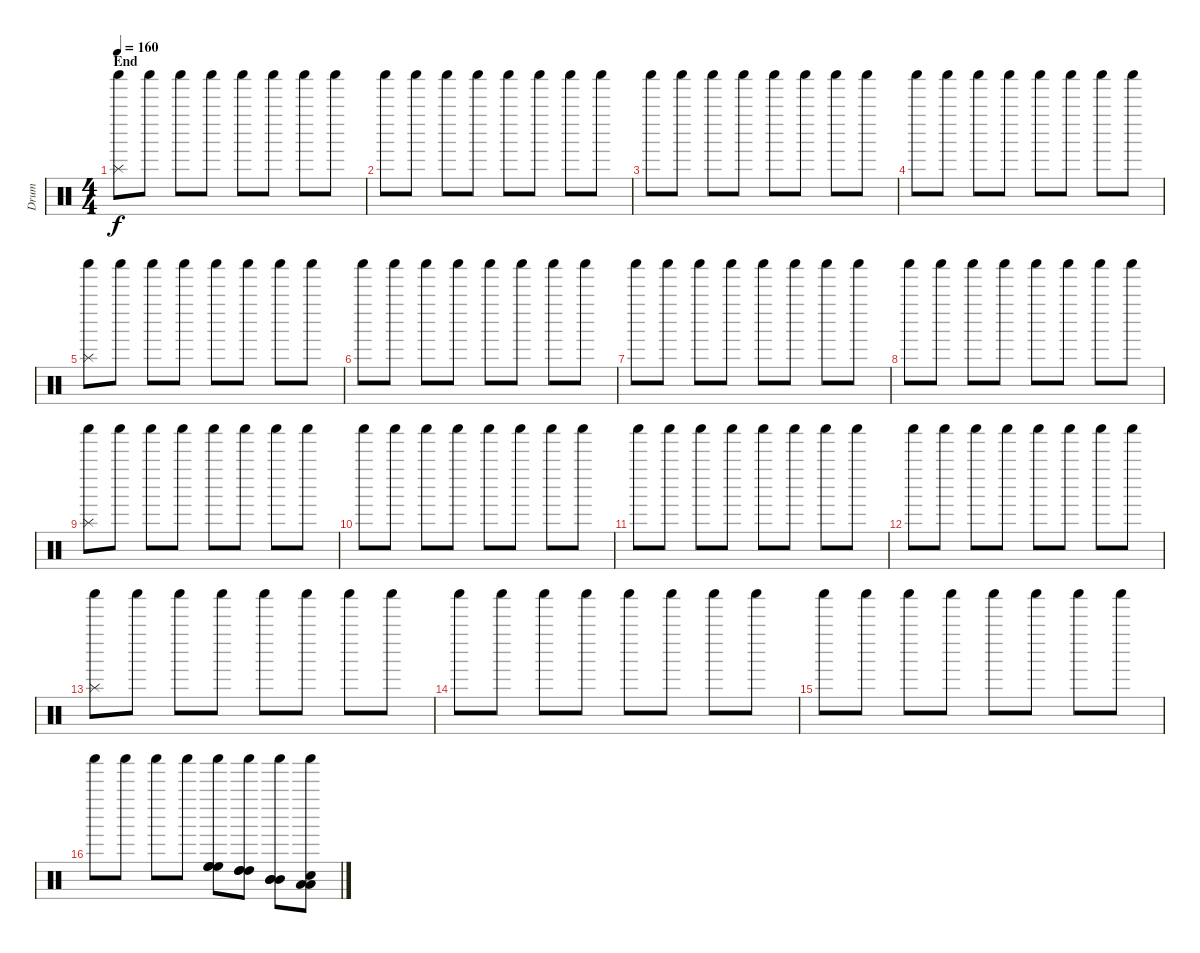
\track ("Drum" "Drum") {instrument percussion}
\staff {score}
\articulation defaults
\ts (4 4)
\section ("" "End")
\tempo 160
\clef neutral
\ks c
("Splash (hit)" "Shaker (hit)").8{dy f} "Shaker (hit)".8 "Shaker (hit)".8 "Shaker (hit)".8 "Shaker (hit)".8 "Shaker (hit)".8 "Shaker (hit)".8 "Shaker (hit)".8 |
"Shaker (hit)".8 "Shaker (hit)".8 "Shaker (hit)".8 "Shaker (hit)".8 "Shaker (hit)".8 "Shaker (hit)".8 "Shaker (hit)".8 "Shaker (hit)".8 |
"Shaker (hit)".8 "Shaker (hit)".8 "Shaker (hit)".8 "Shaker (hit)".8 "Shaker (hit)".8 "Shaker (hit)".8 "Shaker (hit)".8 "Shaker (hit)".8 |
"Shaker (hit)".8 "Shaker (hit)".8 "Shaker (hit)".8 "Shaker (hit)".8 "Shaker (hit)".8 "Shaker (hit)".8 "Shaker (hit)".8 "Shaker (hit)".8 |
("Splash (hit)" "Shaker (hit)").8 "Shaker (hit)".8 "Shaker (hit)".8 "Shaker (hit)".8 "Shaker (hit)".8 "Shaker (hit)".8 "Shaker (hit)".8 "Shaker (hit)".8 |
"Shaker (hit)".8 "Shaker (hit)".8 "Shaker (hit)".8 "Shaker (hit)".8 "Shaker (hit)".8 "Shaker (hit)".8 "Shaker (hit)".8 "Shaker (hit)".8 |
"Shaker (hit)".8 "Shaker (hit)".8 "Shaker (hit)".8 "Shaker (hit)".8 "Shaker (hit)".8 "Shaker (hit)".8 "Shaker (hit)".8 "Shaker (hit)".8 |
"Shaker (hit)".8 "Shaker (hit)".8 "Shaker (hit)".8 "Shaker (hit)".8 "Shaker (hit)".8 "Shaker (hit)".8 "Shaker (hit)".8 "Shaker (hit)".8 |
("Splash (hit)" "Shaker (hit)").8 "Shaker (hit)".8 "Shaker (hit)".8 "Shaker (hit)".8 "Shaker (hit)".8 "Shaker (hit)".8 "Shaker (hit)".8 "Shaker (hit)".8 |
"Shaker (hit)".8 "Shaker (hit)".8 "Shaker (hit)".8 "Shaker (hit)".8 "Shaker (hit)".8 "Shaker (hit)".8 "Shaker (hit)".8 "Shaker (hit)".8 |
"Shaker (hit)".8 "Shaker (hit)".8 "Shaker (hit)".8 "Shaker (hit)".8 "Shaker (hit)".8 "Shaker (hit)".8 "Shaker (hit)".8 "Shaker (hit)".8 |
"Shaker (hit)".8 "Shaker (hit)".8 "Shaker (hit)".8 "Shaker (hit)".8 "Shaker (hit)".8 "Shaker (hit)".8 "Shaker (hit)".8 "Shaker (hit)".8 |
("Splash (hit)" "Shaker (hit)").8 "Shaker (hit)".8 "Shaker (hit)".8 "Shaker (hit)".8 "Shaker (hit)".8 "Shaker (hit)".8 "Shaker (hit)".8 "Shaker (hit)".8 |
"Shaker (hit)".8 "Shaker (hit)".8 "Shaker (hit)".8 "Shaker (hit)".8 "Shaker (hit)".8 "Shaker (hit)".8 "Shaker (hit)".8 "Shaker (hit)".8 |
"Shaker (hit)".8 "Shaker (hit)".8 "Shaker (hit)".8 "Shaker (hit)".8 "Shaker (hit)".8 "Shaker (hit)".8 "Shaker (hit)".8 "Shaker (hit)".8 |
"Shaker (hit)".8 "Shaker (hit)".8 "Shaker (hit)".8 "Shaker (hit)".8 ("High Floor Tom (hit)" "High Floor Tom (hit)" "High Floor Tom (hit)" "Shaker (hit)").8 ("High Tom (hit)" "High Tom (hit)" "High Tom (hit)" "Shaker (hit)").8 ("Mid Tom (hit)" "Mid Tom (hit)" "Mid Tom (hit)" "Shaker (hit)").8 ("Low Tom (hit)" "Low Tom (hit)" "Snare (hit)" "Shaker (hit)").8
